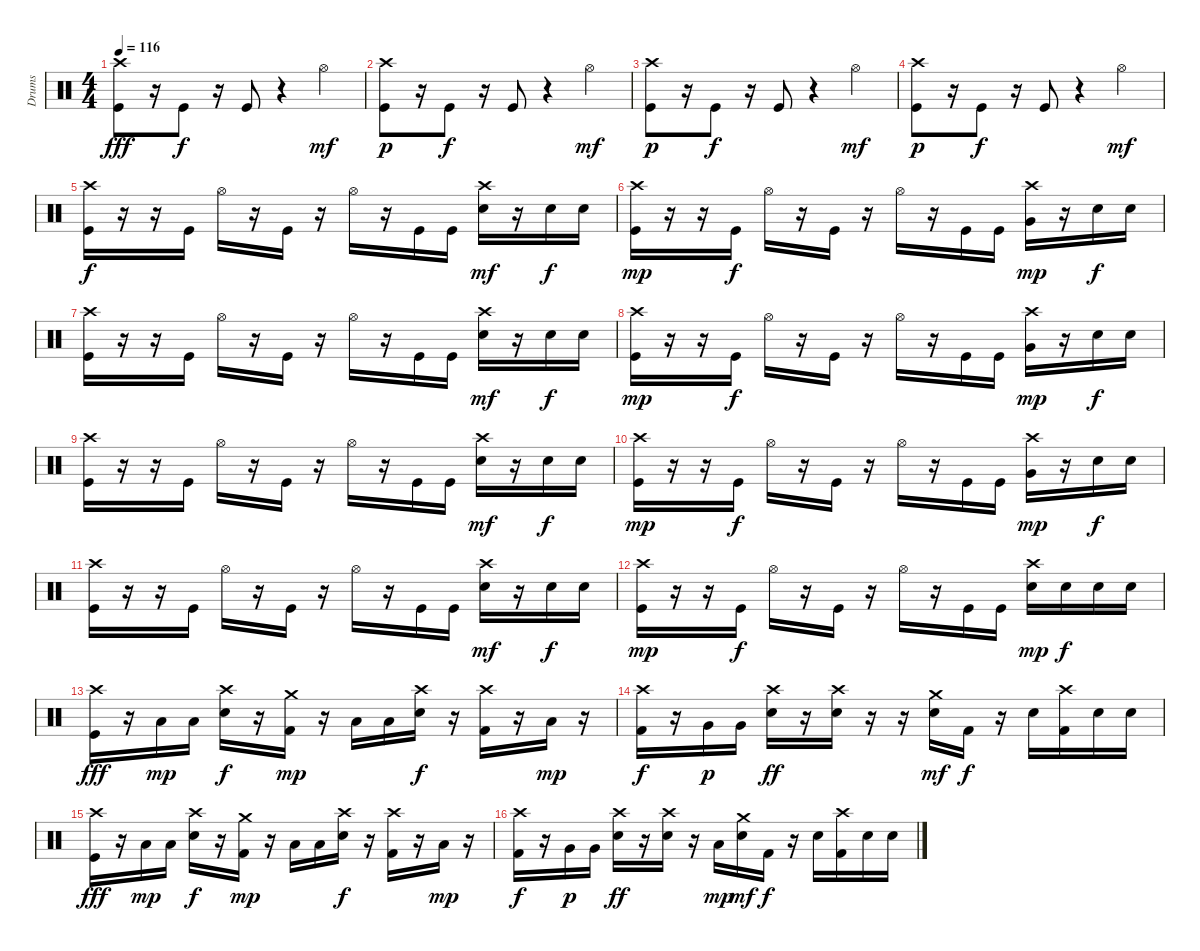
\track ("Drums" "Drums") {instrument percussion}
\staff {score}
\articulation defaults
\ts (4 4)
\tempo 116
\clef neutral
\ks c
("Crash high (hit)" "Kick (hit)").8{dy fff} r.16 "Kick (hit)".8{dy f} r.16 "Kick (hit)".8 r.4 "Hi-Hat (open)".4{dy mf} |
("Crash high (hit)" "Kick (hit)").8{dy p} r.16 "Kick (hit)".8{dy f} r.16 "Kick (hit)".8 r.4 "Hi-Hat (open)".4{dy mf} |
("Crash high (hit)" "Kick (hit)").8{dy p} r.16 "Kick (hit)".8{dy f} r.16 "Kick (hit)".8 r.4 "Hi-Hat (open)".4{dy mf} |
("Crash high (hit)" "Kick (hit)").8{dy p} r.16 "Kick (hit)".8{dy f} r.16 "Kick (hit)".8 r.4 "Hi-Hat (open)".4{dy mf} |
("Crash high (hit)" "Kick (hit)").16{dy f} r.16 r.16 "Kick (hit)".16 "Hi-Hat (open)".16 r.16 "Kick (hit)".16 r.16 "Hi-Hat (open)".16 r.16 "Kick (hit)".16 "Kick (hit)".16 ("Crash high (hit)" "Snare (hit) 2").16{dy mf} r.16 "Snare (hit) 2".16{dy f} "Snare (hit) 2".16 |
("Crash high (hit)" "Kick (hit)").16{dy mp} r.16 r.16 "Kick (hit)".16{dy f} "Hi-Hat (open)".16 r.16 "Kick (hit)".16 r.16 "Hi-Hat (open)".16 r.16 "Kick (hit)".16 "Kick (hit)".16 ("Crash high (hit)" "Very Low Tom (hit)").16{dy mp} r.16 "Snare (hit) 2".16{dy f} "Snare (hit) 2".16 |
("Crash high (hit)" "Kick (hit)").16 r.16 r.16 "Kick (hit)".16 "Hi-Hat (open)".16 r.16 "Kick (hit)".16 r.16 "Hi-Hat (open)".16 r.16 "Kick (hit)".16 "Kick (hit)".16 ("Crash high (hit)" "Snare (hit) 2").16{dy mf} r.16 "Snare (hit) 2".16{dy f} "Snare (hit) 2".16 |
("Crash high (hit)" "Kick (hit)").16{dy mp} r.16 r.16 "Kick (hit)".16{dy f} "Hi-Hat (open)".16 r.16 "Kick (hit)".16 r.16 "Hi-Hat (open)".16 r.16 "Kick (hit)".16 "Kick (hit)".16 ("Crash high (hit)" "Very Low Tom (hit)").16{dy mp} r.16 "Snare (hit) 2".16{dy f} "Snare (hit) 2".16 |
("Crash high (hit)" "Kick (hit)").16 r.16 r.16 "Kick (hit)".16 "Hi-Hat (open)".16 r.16 "Kick (hit)".16 r.16 "Hi-Hat (open)".16 r.16 "Kick (hit)".16 "Kick (hit)".16 ("Crash high (hit)" "Snare (hit) 2").16{dy mf} r.16 "Snare (hit) 2".16{dy f} "Snare (hit) 2".16 |
("Crash high (hit)" "Kick (hit)").16{dy mp} r.16 r.16 "Kick (hit)".16{dy f} "Hi-Hat (open)".16 r.16 "Kick (hit)".16 r.16 "Hi-Hat (open)".16 r.16 "Kick (hit)".16 "Kick (hit)".16 ("Crash high (hit)" "Very Low Tom (hit)").16{dy mp} r.16 "Snare (hit) 2".16{dy f} "Snare (hit) 2".16 |
("Crash high (hit)" "Kick (hit)").16 r.16 r.16 "Kick (hit)".16 "Hi-Hat (open)".16 r.16 "Kick (hit)".16 r.16 "Hi-Hat (open)".16 r.16 "Kick (hit)".16 "Kick (hit)".16 ("Crash high (hit)" "Snare (hit) 2").16{dy mf} r.16 "Snare (hit) 2".16{dy f} "Snare (hit) 2".16 |
("Crash high (hit)" "Kick (hit)").16{dy mp} r.16 r.16 "Kick (hit)".16{dy f} "Hi-Hat (open)".16 r.16 "Kick (hit)".16 r.16 "Hi-Hat (open)".16 r.16 "Kick (hit)".16 "Kick (hit)".16 ("Crash high (hit)" "Snare (hit) 2").16{dy mp} "Snare (hit) 2".16{dy f} "Snare (hit) 2".16 "Snare (hit) 2".16 |
("Crash high (hit)" "Kick (hit)").16{dy fff} r.16 "Low Tom (hit)".16{dy mp} "Low Tom (hit)".16 ("Crash high (hit)" "Snare (hit) 2").16{dy f} r.16 ("Crash medium (hit)" "Kick (hit) 2").16{dy mp} r.16 "Low Tom (hit)".16 "Low Tom (hit)".16 ("Crash high (hit)" "Snare (hit) 2").16{dy f} r.16 ("Crash high (hit)" "Kick (hit) 2").16 r.16 "Low Tom (hit)".16{dy mp} r.16 |
("Crash high (hit)" "Kick (hit) 2").16{dy f} r.16 "Very Low Tom (hit)".16{dy p} "Very Low Tom (hit)".16 ("Crash high (hit)" "Snare (hit) 2").16{dy ff} r.16 ("Crash high (hit)" "Snare (hit) 2").16 r.16 r.16 ("Crash medium (hit)" "Snare (hit) 2").16{dy mf} "Kick (hit) 2".16{dy f} r.16 "Snare (hit) 2".16 ("Crash high (hit)" "Kick (hit) 2").16 "Snare (hit) 2".16 "Snare (hit) 2".16 |
("Crash high (hit)" "Kick (hit)").16{dy fff} r.16 "Low Tom (hit)".16{dy mp} "Low Tom (hit)".16 ("Crash high (hit)" "Snare (hit) 2").16{dy f} r.16 ("Crash medium (hit)" "Kick (hit) 2").16{dy mp} r.16 "Low Tom (hit)".16 "Low Tom (hit)".16 ("Crash high (hit)" "Snare (hit) 2").16{dy f} r.16 ("Crash high (hit)" "Kick (hit) 2").16 r.16 "Low Tom (hit)".16{dy mp} r.16 |
("Crash high (hit)" "Kick (hit) 2").16{dy f} r.16 "Very Low Tom (hit)".16{dy p} "Very Low Tom (hit)".16 ("Crash high (hit)" "Snare (hit) 2").16{dy ff} r.16 ("Crash high (hit)" "Snare (hit) 2").16 r.16 "Low Tom (hit)".16{dy mp} ("Crash medium (hit)" "Snare (hit) 2").16{dy mf} "Kick (hit) 2".16{dy f} r.16 "Snare (hit) 2".16 ("Crash high (hit)" "Kick (hit) 2").16 "Snare (hit) 2".16 "Snare (hit) 2".16
